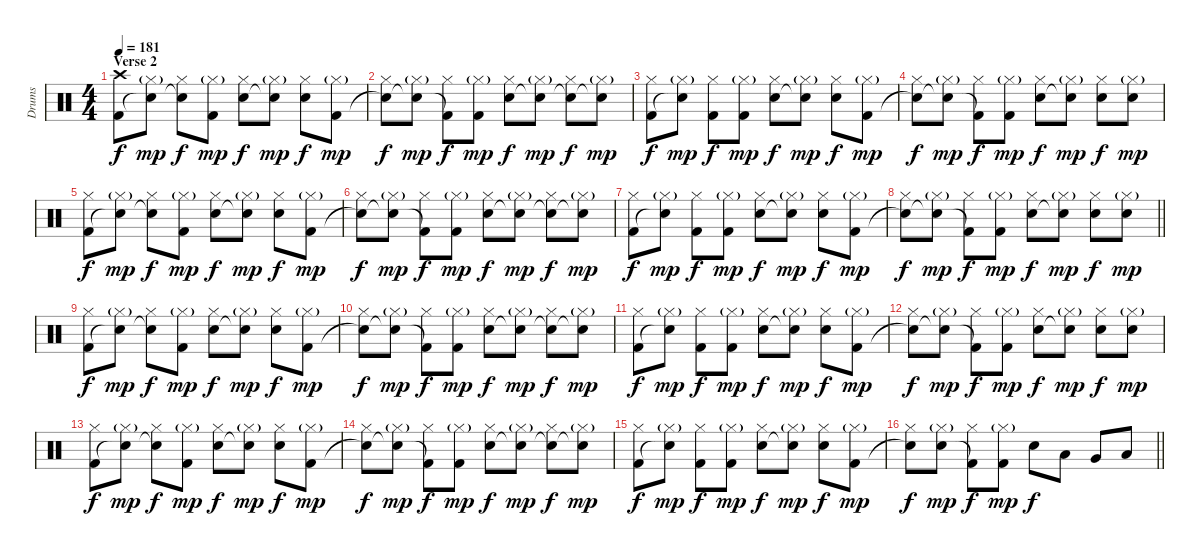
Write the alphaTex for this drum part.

\track ("Drums" "Drums") {instrument percussion}
\staff {score}
\articulation defaults
\ts (4 4)
\section ("" "Verse 2")
\tempo 181
\clef neutral
\ks c
("Kick (hit) 2" "Crash high (hit)").8{dy f} ("Snare (hit)"{t} "Hi-Hat (closed)"{g}).8{dy mp} ("Snare (hit)"{t} "Hi-Hat (closed)").8{dy f} ("Kick (hit) 2" "Hi-Hat (closed)"{g}).8{dy mp} ("Electric Snare (hit)" "Hi-Hat (closed)").8{dy f} ("Snare (hit)"{t} "Hi-Hat (closed)"{g}).8{dy mp} ("Electric Snare (hit)" "Hi-Hat (closed)").8{dy f} ("Kick (hit) 2" "Hi-Hat (closed)"{g}).8{dy mp} |
("Snare (hit)"{t} "Hi-Hat (closed)").8{dy f} ("Snare (hit)"{t} "Hi-Hat (closed)"{g}).8{dy mp} ("Kick (hit) 2"{t} "Hi-Hat (closed)").8{dy f} ("Kick (hit) 2" "Hi-Hat (closed)"{g}).8{dy mp} ("Electric Snare (hit)" "Hi-Hat (closed)").8{dy f} ("Electric Snare (hit)"{t} "Hi-Hat (closed)"{g}).8{dy mp} ("Electric Snare (hit)"{t} "Hi-Hat (closed)").8{dy f} ("Snare (hit)"{t} "Hi-Hat (closed)"{g}).8{dy mp} |
("Kick (hit) 2" "Hi-Hat (closed)").8{dy f} ("Snare (hit)"{t} "Hi-Hat (closed)"{g}).8{dy mp} ("Kick (hit) 2" "Hi-Hat (closed)").8{dy f} ("Kick (hit) 2" "Hi-Hat (closed)"{g}).8{dy mp} ("Electric Snare (hit)" "Hi-Hat (closed)").8{dy f} ("Snare (hit)"{t} "Hi-Hat (closed)"{g}).8{dy mp} ("Electric Snare (hit)" "Hi-Hat (closed)").8{dy f} ("Kick (hit) 2" "Hi-Hat (closed)"{g}).8{dy mp} |
("Snare (hit)"{t} "Hi-Hat (closed)").8{dy f} ("Snare (hit)"{t} "Hi-Hat (closed)"{g}).8{dy mp} ("Kick (hit) 2"{t} "Hi-Hat (closed)").8{dy f} ("Kick (hit) 2" "Hi-Hat (closed)"{g}).8{dy mp} ("Electric Snare (hit)" "Hi-Hat (closed)").8{dy f} ("Electric Snare (hit)"{t} "Hi-Hat (closed)"{g}).8{dy mp} ("Electric Snare (hit)" "Hi-Hat (closed)").8{dy f} ("Electric Snare (hit)" "Hi-Hat (closed)"{g}).8{dy mp} |
("Kick (hit) 2" "Hi-Hat (closed)").8{dy f} ("Snare (hit)"{t} "Hi-Hat (closed)"{g}).8{dy mp} ("Snare (hit)"{t} "Hi-Hat (closed)").8{dy f} ("Kick (hit) 2" "Hi-Hat (closed)"{g}).8{dy mp} ("Electric Snare (hit)" "Hi-Hat (closed)").8{dy f} ("Snare (hit)"{t} "Hi-Hat (closed)"{g}).8{dy mp} ("Electric Snare (hit)" "Hi-Hat (closed)").8{dy f} ("Kick (hit) 2" "Hi-Hat (closed)"{g}).8{dy mp} |
("Snare (hit)"{t} "Hi-Hat (closed)").8{dy f} ("Snare (hit)"{t} "Hi-Hat (closed)"{g}).8{dy mp} ("Kick (hit) 2"{t} "Hi-Hat (closed)").8{dy f} ("Kick (hit) 2" "Hi-Hat (closed)"{g}).8{dy mp} ("Electric Snare (hit)" "Hi-Hat (closed)").8{dy f} ("Electric Snare (hit)"{t} "Hi-Hat (closed)"{g}).8{dy mp} ("Electric Snare (hit)"{t} "Hi-Hat (closed)").8{dy f} ("Snare (hit)"{t} "Hi-Hat (closed)"{g}).8{dy mp} |
("Kick (hit) 2" "Hi-Hat (closed)").8{dy f} ("Snare (hit)"{t} "Hi-Hat (closed)"{g}).8{dy mp} ("Kick (hit) 2" "Hi-Hat (closed)").8{dy f} ("Kick (hit) 2" "Hi-Hat (closed)"{g}).8{dy mp} ("Electric Snare (hit)" "Hi-Hat (closed)").8{dy f} ("Snare (hit)"{t} "Hi-Hat (closed)"{g}).8{dy mp} ("Electric Snare (hit)" "Hi-Hat (closed)").8{dy f} ("Kick (hit) 2" "Hi-Hat (closed)"{g}).8{dy mp} |
\barLineRight lightlight
("Snare (hit)"{t} "Hi-Hat (closed)").8{dy f} ("Snare (hit)"{t} "Hi-Hat (closed)"{g}).8{dy mp} ("Kick (hit) 2"{t} "Hi-Hat (closed)").8{dy f} ("Kick (hit) 2" "Hi-Hat (closed)"{g}).8{dy mp} ("Electric Snare (hit)" "Hi-Hat (closed)").8{dy f} ("Electric Snare (hit)"{t} "Hi-Hat (closed)"{g}).8{dy mp} ("Electric Snare (hit)" "Hi-Hat (closed)").8{dy f} ("Electric Snare (hit)" "Hi-Hat (closed)"{g}).8{dy mp} |
("Kick (hit) 2" "Hi-Hat (closed)").8{dy f} ("Snare (hit)"{t} "Hi-Hat (closed)"{g}).8{dy mp} ("Snare (hit)"{t} "Hi-Hat (closed)").8{dy f} ("Kick (hit) 2" "Hi-Hat (closed)"{g}).8{dy mp} ("Electric Snare (hit)" "Hi-Hat (closed)").8{dy f} ("Snare (hit)"{t} "Hi-Hat (closed)"{g}).8{dy mp} ("Electric Snare (hit)" "Hi-Hat (closed)").8{dy f} ("Kick (hit) 2" "Hi-Hat (closed)"{g}).8{dy mp} |
("Snare (hit)"{t} "Hi-Hat (closed)").8{dy f} ("Snare (hit)"{t} "Hi-Hat (closed)"{g}).8{dy mp} ("Kick (hit) 2"{t} "Hi-Hat (closed)").8{dy f} ("Kick (hit) 2" "Hi-Hat (closed)"{g}).8{dy mp} ("Electric Snare (hit)" "Hi-Hat (closed)").8{dy f} ("Electric Snare (hit)"{t} "Hi-Hat (closed)"{g}).8{dy mp} ("Electric Snare (hit)"{t} "Hi-Hat (closed)").8{dy f} ("Snare (hit)"{t} "Hi-Hat (closed)"{g}).8{dy mp} |
("Kick (hit) 2" "Hi-Hat (closed)").8{dy f} ("Snare (hit)"{t} "Hi-Hat (closed)"{g}).8{dy mp} ("Kick (hit) 2" "Hi-Hat (closed)").8{dy f} ("Kick (hit) 2" "Hi-Hat (closed)"{g}).8{dy mp} ("Electric Snare (hit)" "Hi-Hat (closed)").8{dy f} ("Snare (hit)"{t} "Hi-Hat (closed)"{g}).8{dy mp} ("Electric Snare (hit)" "Hi-Hat (closed)").8{dy f} ("Kick (hit) 2" "Hi-Hat (closed)"{g}).8{dy mp} |
("Snare (hit)"{t} "Hi-Hat (closed)").8{dy f} ("Snare (hit)"{t} "Hi-Hat (closed)"{g}).8{dy mp} ("Kick (hit) 2"{t} "Hi-Hat (closed)").8{dy f} ("Kick (hit) 2" "Hi-Hat (closed)"{g}).8{dy mp} ("Electric Snare (hit)" "Hi-Hat (closed)").8{dy f} ("Electric Snare (hit)"{t} "Hi-Hat (closed)"{g}).8{dy mp} ("Electric Snare (hit)" "Hi-Hat (closed)").8{dy f} ("Electric Snare (hit)" "Hi-Hat (closed)"{g}).8{dy mp} |
("Kick (hit) 2" "Hi-Hat (closed)").8{dy f} ("Snare (hit)"{t} "Hi-Hat (closed)"{g}).8{dy mp} ("Snare (hit)"{t} "Hi-Hat (closed)").8{dy f} ("Kick (hit) 2" "Hi-Hat (closed)"{g}).8{dy mp} ("Electric Snare (hit)" "Hi-Hat (closed)").8{dy f} ("Snare (hit)"{t} "Hi-Hat (closed)"{g}).8{dy mp} ("Electric Snare (hit)" "Hi-Hat (closed)").8{dy f} ("Kick (hit) 2" "Hi-Hat (closed)"{g}).8{dy mp} |
("Snare (hit)"{t} "Hi-Hat (closed)").8{dy f} ("Snare (hit)"{t} "Hi-Hat (closed)"{g}).8{dy mp} ("Kick (hit) 2"{t} "Hi-Hat (closed)").8{dy f} ("Kick (hit) 2" "Hi-Hat (closed)"{g}).8{dy mp} ("Electric Snare (hit)" "Hi-Hat (closed)").8{dy f} ("Electric Snare (hit)"{t} "Hi-Hat (closed)"{g}).8{dy mp} ("Electric Snare (hit)"{t} "Hi-Hat (closed)").8{dy f} ("Snare (hit)"{t} "Hi-Hat (closed)"{g}).8{dy mp} |
("Kick (hit) 2" "Hi-Hat (closed)").8{dy f} ("Snare (hit)"{t} "Hi-Hat (closed)"{g}).8{dy mp} ("Kick (hit) 2" "Hi-Hat (closed)").8{dy f} ("Kick (hit) 2" "Hi-Hat (closed)"{g}).8{dy mp} ("Electric Snare (hit)" "Hi-Hat (closed)").8{dy f} ("Snare (hit)"{t} "Hi-Hat (closed)"{g}).8{dy mp} ("Electric Snare (hit)" "Hi-Hat (closed)").8{dy f} ("Kick (hit) 2" "Hi-Hat (closed)"{g}).8{dy mp} |
\barLineRight lightlight
("Snare (hit)"{t} "Hi-Hat (closed)").8{dy f} ("Electric Snare (hit)" "Hi-Hat (closed)"{g}).8{dy mp} ("Kick (hit) 2"{t} "Hi-Hat (closed)").8{dy f} ("Kick (hit) 2" "Hi-Hat (closed)"{g}).8{dy mp} "Electric Snare (hit)".8{dy f} "Low Tom (hit)".8 "Very Low Tom (hit)".8 "Low Floor Tom (hit)".8
